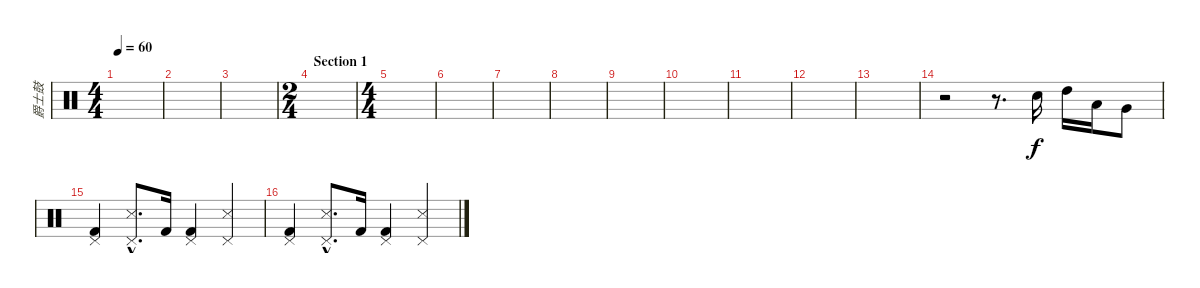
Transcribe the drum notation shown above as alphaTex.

\track ("爵士鼓" "爵士鼓") {instrument percussion}
\staff {score}
\articulation defaults
\ts (4 4)
\tempo 60
\clef neutral
\ks c
|
|
|
\ts (2 4)
\section ("" "Section 1")
|
\ts (4 4)
|
|
|
|
|
|
|
|
|
r.2 r.8{d} "Electric Snare (hit)".16 "High Tom (hit)".16 "Low Tom (hit)".16 "Very Low Tom (hit)".8 |
("Pedal Hi-Hat (hit)" "Kick (hit) 2").4 ("Pedal Hi-Hat (hit)"{hac} "Snare (side stick) 3"{hac}).8{d} "Kick (hit) 2".16 ("Pedal Hi-Hat (hit)" "Kick (hit) 2").4 ("Pedal Hi-Hat (hit)" "Snare (side stick) 3").4 |
("Pedal Hi-Hat (hit)" "Kick (hit) 2").4 ("Pedal Hi-Hat (hit)"{hac} "Snare (side stick) 3"{hac}).8{d} "Kick (hit) 2".16 ("Pedal Hi-Hat (hit)" "Kick (hit) 2").4 ("Pedal Hi-Hat (hit)" "Snare (side stick) 3").4
